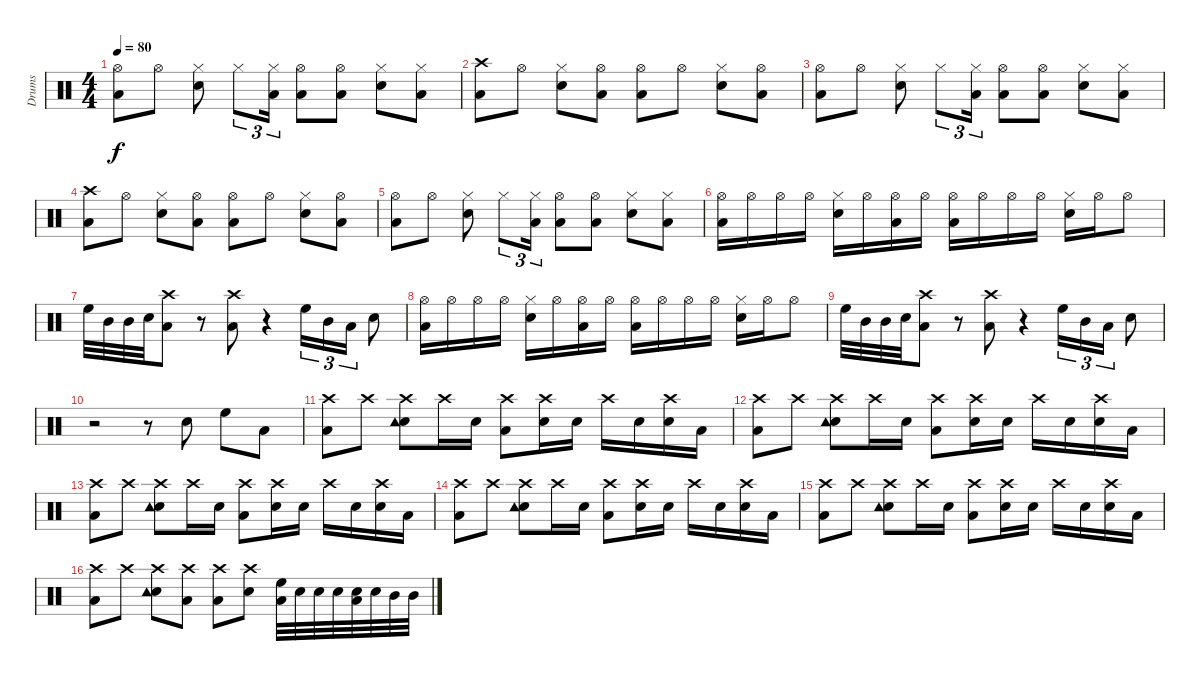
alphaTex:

\track ("Drums" "Drums") {instrument percussion}
\staff {score}
\articulation defaults
\ts (4 4)
\tempo 80
\clef neutral
\ks c
("Hi-Hat (open)" "Low Floor Tom (hit)").8{dy f} "Hi-Hat (open)".8 ("Hi-Hat (closed)" "Snare (hit) 2").8 "Hi-Hat (closed)".8{tu (3 2)} ("Hi-Hat (closed)" "Low Floor Tom (hit)").16{tu (3 2)} ("Hi-Hat (open)" "Low Floor Tom (hit)").8 ("Hi-Hat (open)" "Low Floor Tom (hit)").8 ("Hi-Hat (closed)" "Snare (hit) 2").8 ("Hi-Hat (closed)" "Low Floor Tom (hit)").8 |
("Crash high (hit)" "Low Floor Tom (hit)").8 "Hi-Hat (open)".8 ("Hi-Hat (closed)" "Snare (hit) 2").8 ("Hi-Hat (open)" "Low Floor Tom (hit)").8 ("Hi-Hat (open)" "Low Floor Tom (hit)").8 "Hi-Hat (open)".8 ("Hi-Hat (closed)" "Snare (hit) 2").8 ("Hi-Hat (open)" "Low Floor Tom (hit)").8 |
("Hi-Hat (open)" "Low Floor Tom (hit)").8 "Hi-Hat (open)".8 ("Hi-Hat (closed)" "Snare (hit) 2").8 "Hi-Hat (closed)".8{tu (3 2)} ("Hi-Hat (closed)" "Low Floor Tom (hit)").16{tu (3 2)} ("Hi-Hat (open)" "Low Floor Tom (hit)").8 ("Hi-Hat (open)" "Low Floor Tom (hit)").8 ("Hi-Hat (closed)" "Snare (hit) 2").8 ("Hi-Hat (closed)" "Low Floor Tom (hit)").8 |
("Crash high (hit)" "Low Floor Tom (hit)").8 "Hi-Hat (open)".8 ("Hi-Hat (closed)" "Snare (hit) 2").8 ("Hi-Hat (open)" "Low Floor Tom (hit)").8 ("Hi-Hat (open)" "Low Floor Tom (hit)").8 "Hi-Hat (open)".8 ("Hi-Hat (closed)" "Snare (hit) 2").8 ("Hi-Hat (open)" "Low Floor Tom (hit)").8 |
("Hi-Hat (open)" "Low Floor Tom (hit)").8 "Hi-Hat (open)".8 ("Hi-Hat (closed)" "Snare (hit) 2").8 "Hi-Hat (closed)".8{tu (3 2)} ("Hi-Hat (closed)" "Low Floor Tom (hit)").16{tu (3 2)} ("Hi-Hat (open)" "Low Floor Tom (hit)").8 ("Hi-Hat (open)" "Low Floor Tom (hit)").8 ("Hi-Hat (closed)" "Snare (hit) 2").8 ("Hi-Hat (closed)" "Low Floor Tom (hit)").8 |
("Hi-Hat (open)" "Low Floor Tom (hit)").16 "Hi-Hat (open)".16 "Hi-Hat (open)".16 "Hi-Hat (open)".16 ("Hi-Hat (closed)" "Snare (hit) 2").16 "Hi-Hat (open)".16 ("Hi-Hat (open)" "Low Floor Tom (hit)").16 "Hi-Hat (open)".16 ("Hi-Hat (open)" "Low Floor Tom (hit)").16 "Hi-Hat (open)".16 "Hi-Hat (open)".16 "Hi-Hat (open)".16 ("Hi-Hat (closed)" "Snare (hit) 2").16 "Hi-Hat (open)".16 "Hi-Hat (open)".8 |
"High Floor Tom (hit)".32 "Mid Tom (hit)".32 "Mid Tom (hit)".32 "Snare (hit) 2".32 ("Crash high (hit)" "Low Floor Tom (hit)").8 r.8 ("Crash high (hit)" "Low Floor Tom (hit)").8 r.4 "High Floor Tom (hit)".16{tu (3 2)} "Mid Tom (hit)".16{tu (3 2)} "Low Floor Tom (hit)".16{tu (3 2)} "Snare (hit) 2".8 |
("Hi-Hat (open)" "Low Floor Tom (hit)").16 "Hi-Hat (open)".16 "Hi-Hat (open)".16 "Hi-Hat (open)".16 ("Hi-Hat (closed)" "Snare (hit) 2").16 "Hi-Hat (open)".16 ("Hi-Hat (open)" "Low Floor Tom (hit)").16 "Hi-Hat (open)".16 ("Hi-Hat (open)" "Low Floor Tom (hit)").16 "Hi-Hat (open)".16 "Hi-Hat (open)".16 "Hi-Hat (open)".16 ("Hi-Hat (closed)" "Snare (hit) 2").16 "Hi-Hat (open)".16 "Hi-Hat (open)".8 |
"High Floor Tom (hit)".32 "Mid Tom (hit)".32 "Mid Tom (hit)".32 "Snare (hit) 2".32 ("Crash high (hit)" "Low Floor Tom (hit)").8 r.8 ("Crash high (hit)" "Low Floor Tom (hit)").8 r.4 "High Floor Tom (hit)".16{tu (3 2)} "Mid Tom (hit)".16{tu (3 2)} "Low Floor Tom (hit)".16{tu (3 2)} "Snare (hit) 2".8 |
r.2 r.8 "Snare (hit) 2".8 "High Floor Tom (hit)".8 "Low Floor Tom (hit)".8 |
("Crash high (hit)" "Low Floor Tom (hit)").8 "Crash high (hit)".8 ("Crash high (hit)" "Snare (hit) 2" "Tambourine (hit)").8 "Crash high (hit)".16 "Snare (hit) 2".16 ("Crash high (hit)" "Low Floor Tom (hit)").8 ("Crash high (hit)" "Snare (hit) 2").16 "Snare (hit) 2".16 "Crash high (hit)".16 "Snare (hit) 2".16 ("Crash high (hit)" "Snare (hit) 2").16 "Low Floor Tom (hit)".16 |
("Crash high (hit)" "Low Floor Tom (hit)").8 "Crash high (hit)".8 ("Crash high (hit)" "Snare (hit) 2" "Tambourine (hit)").8 "Crash high (hit)".16 "Snare (hit) 2".16 ("Crash high (hit)" "Low Floor Tom (hit)").8 ("Crash high (hit)" "Snare (hit) 2").16 "Snare (hit) 2".16 "Crash high (hit)".16 "Snare (hit) 2".16 ("Crash high (hit)" "Snare (hit) 2").16 "Low Floor Tom (hit)".16 |
("Crash high (hit)" "Low Floor Tom (hit)").8 "Crash high (hit)".8 ("Crash high (hit)" "Snare (hit) 2" "Tambourine (hit)").8 "Crash high (hit)".16 "Snare (hit) 2".16 ("Crash high (hit)" "Low Floor Tom (hit)").8 ("Crash high (hit)" "Snare (hit) 2").16 "Snare (hit) 2".16 "Crash high (hit)".16 "Snare (hit) 2".16 ("Crash high (hit)" "Snare (hit) 2").16 "Low Floor Tom (hit)".16 |
("Crash high (hit)" "Low Floor Tom (hit)").8 "Crash high (hit)".8 ("Crash high (hit)" "Snare (hit) 2" "Tambourine (hit)").8 "Crash high (hit)".16 "Snare (hit) 2".16 ("Crash high (hit)" "Low Floor Tom (hit)").8 ("Crash high (hit)" "Snare (hit) 2").16 "Snare (hit) 2".16 "Crash high (hit)".16 "Snare (hit) 2".16 ("Crash high (hit)" "Snare (hit) 2").16 "Low Floor Tom (hit)".16 |
("Crash high (hit)" "Low Floor Tom (hit)").8 "Crash high (hit)".8 ("Crash high (hit)" "Snare (hit) 2" "Tambourine (hit)").8 "Crash high (hit)".16 "Snare (hit) 2".16 ("Crash high (hit)" "Low Floor Tom (hit)").8 ("Crash high (hit)" "Snare (hit) 2").16 "Snare (hit) 2".16 "Crash high (hit)".16 "Snare (hit) 2".16 ("Crash high (hit)" "Snare (hit) 2").16 "Low Floor Tom (hit)".16 |
("Crash high (hit)" "Low Floor Tom (hit)").8 "Crash high (hit)".8 ("Crash high (hit)" "Snare (hit) 2" "Tambourine (hit)").8 ("Crash high (hit)" "Low Floor Tom (hit)").8 ("Crash high (hit)" "Low Floor Tom (hit)").8 ("Crash high (hit)" "Snare (hit) 2").8 ("High Floor Tom (hit)" "Low Floor Tom (hit)").32 "Snare (hit) 2".32 "Snare (hit) 2".32 "Snare (hit) 2".32 ("Snare (hit) 2" "Low Floor Tom (hit)").32 "Snare (hit) 2".32 "Mid Tom (hit)".32 "Mid Tom (hit)".32
